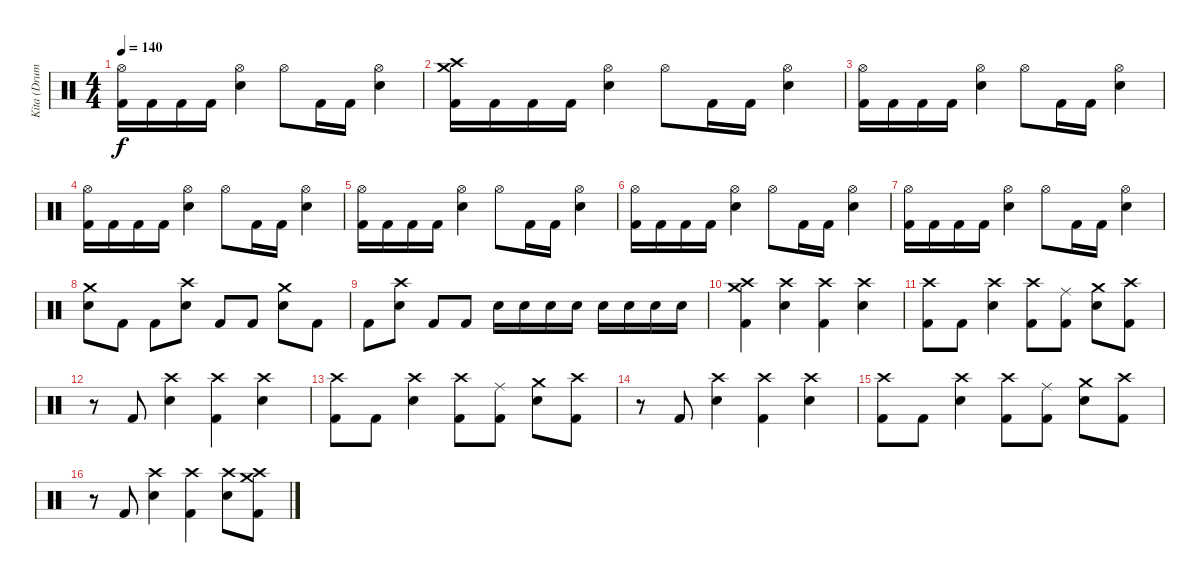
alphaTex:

\track ("Kita (Drums)" "Kita (Drum") {instrument percussion}
\staff {score}
\articulation defaults
\ts (4 4)
\tempo 140
\clef neutral
\ks c
("Hi-Hat (open)" "Kick (hit) 2").16{dy f} "Kick (hit) 2".16 "Kick (hit) 2".16 "Kick (hit) 2".16 ("Hi-Hat (open)" "Electric Snare (hit)").4 "Hi-Hat (open)".8 "Kick (hit) 2".16 "Kick (hit) 2".16 ("Hi-Hat (open)" "Electric Snare (hit)").4 |
("Crash medium (hit)" "Crash high (hit)" "Kick (hit) 2").16 "Kick (hit) 2".16 "Kick (hit) 2".16 "Kick (hit) 2".16 ("Hi-Hat (open)" "Electric Snare (hit)").4 "Hi-Hat (open)".8 "Kick (hit) 2".16 "Kick (hit) 2".16 ("Hi-Hat (open)" "Electric Snare (hit)").4 |
("Hi-Hat (open)" "Kick (hit) 2").16 "Kick (hit) 2".16 "Kick (hit) 2".16 "Kick (hit) 2".16 ("Hi-Hat (open)" "Electric Snare (hit)").4 "Hi-Hat (open)".8 "Kick (hit) 2".16 "Kick (hit) 2".16 ("Hi-Hat (open)" "Electric Snare (hit)").4 |
("Hi-Hat (open)" "Kick (hit) 2").16 "Kick (hit) 2".16 "Kick (hit) 2".16 "Kick (hit) 2".16 ("Hi-Hat (open)" "Electric Snare (hit)").4 "Hi-Hat (open)".8 "Kick (hit) 2".16 "Kick (hit) 2".16 ("Hi-Hat (open)" "Electric Snare (hit)").4 |
("Hi-Hat (open)" "Kick (hit) 2").16 "Kick (hit) 2".16 "Kick (hit) 2".16 "Kick (hit) 2".16 ("Hi-Hat (open)" "Electric Snare (hit)").4 "Hi-Hat (open)".8 "Kick (hit) 2".16 "Kick (hit) 2".16 ("Hi-Hat (open)" "Electric Snare (hit)").4 |
("Hi-Hat (open)" "Kick (hit) 2").16 "Kick (hit) 2".16 "Kick (hit) 2".16 "Kick (hit) 2".16 ("Hi-Hat (open)" "Electric Snare (hit)").4 "Hi-Hat (open)".8 "Kick (hit) 2".16 "Kick (hit) 2".16 ("Hi-Hat (open)" "Electric Snare (hit)").4 |
("Hi-Hat (open)" "Kick (hit) 2").16 "Kick (hit) 2".16 "Kick (hit) 2".16 "Kick (hit) 2".16 ("Hi-Hat (open)" "Electric Snare (hit)").4 "Hi-Hat (open)".8 "Kick (hit) 2".16 "Kick (hit) 2".16 ("Hi-Hat (open)" "Electric Snare (hit)").4 |
("Crash medium (hit)" "Electric Snare (hit)").8 "Kick (hit) 2".8 "Kick (hit) 2".8 ("Crash high (hit)" "Electric Snare (hit)").8 "Kick (hit) 2".8 "Kick (hit) 2".8 ("Crash medium (hit)" "Electric Snare (hit)").8 "Kick (hit) 2".8 |
"Kick (hit) 2".8 ("Crash high (hit)" "Electric Snare (hit)").8 "Kick (hit) 2".8 "Kick (hit) 2".8 "Electric Snare (hit)".16 "Electric Snare (hit)".16 "Electric Snare (hit)".16 "Electric Snare (hit)".16 "Electric Snare (hit)".16 "Electric Snare (hit)".16 "Electric Snare (hit)".16 "Electric Snare (hit)".16 |
("Crash medium (hit)" "Crash high (hit)" "Kick (hit) 2").4 ("Crash high (hit)" "Electric Snare (hit)").4 ("Crash high (hit)" "Kick (hit) 2").4 ("Crash high (hit)" "Electric Snare (hit)").4 |
("Crash high (hit)" "Kick (hit) 2").8 "Kick (hit) 2".8 ("Crash high (hit)" "Electric Snare (hit)").4 ("Crash high (hit)" "Kick (hit) 2").8 ("Ride (middle)" "Kick (hit) 2").8 ("Crash medium (hit)" "Electric Snare (hit)").8 ("Crash high (hit)" "Kick (hit) 2").8 |
r.8 "Kick (hit) 2".8 ("Crash high (hit)" "Electric Snare (hit)").4 ("Crash high (hit)" "Kick (hit) 2").4 ("Crash high (hit)" "Electric Snare (hit)").4 |
("Crash high (hit)" "Kick (hit) 2").8 "Kick (hit) 2".8 ("Crash high (hit)" "Electric Snare (hit)").4 ("Crash high (hit)" "Kick (hit) 2").8 ("Ride (middle)" "Kick (hit) 2").8 ("Crash medium (hit)" "Electric Snare (hit)").8 ("Crash high (hit)" "Kick (hit) 2").8 |
r.8 "Kick (hit) 2".8 ("Crash high (hit)" "Electric Snare (hit)").4 ("Crash high (hit)" "Kick (hit) 2").4 ("Crash high (hit)" "Electric Snare (hit)").4 |
("Crash high (hit)" "Kick (hit) 2").8 "Kick (hit) 2".8 ("Crash high (hit)" "Electric Snare (hit)").4 ("Crash high (hit)" "Kick (hit) 2").8 ("Ride (middle)" "Kick (hit) 2").8 ("Crash medium (hit)" "Electric Snare (hit)").8 ("Crash high (hit)" "Kick (hit) 2").8 |
r.8 "Kick (hit) 2".8 ("Crash high (hit)" "Electric Snare (hit)").4 ("Crash high (hit)" "Kick (hit) 2").4 ("Crash high (hit)" "Electric Snare (hit)").8 ("Crash medium (hit)" "Crash high (hit)" "Kick (hit) 2").8
